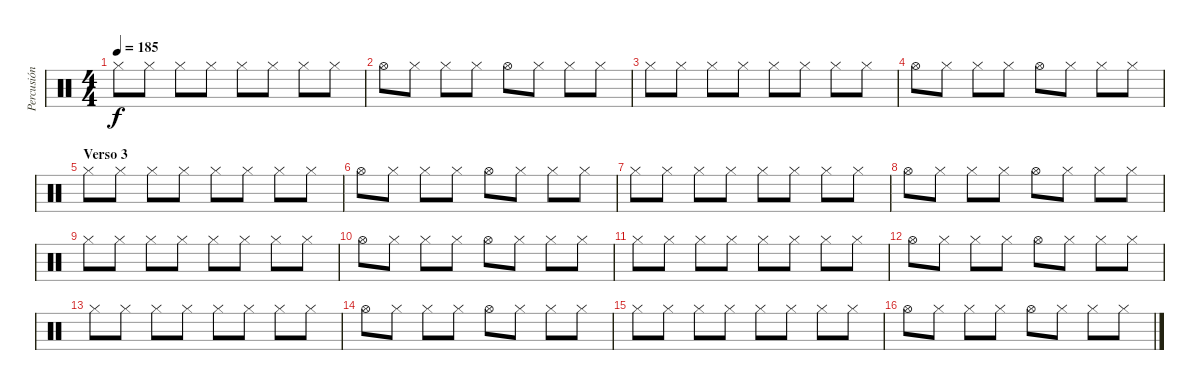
\track ("Percusión" "Percusión") {instrument percussion}
\staff {score}
\articulation defaults
\ts (4 4)
\tempo 185
\clef neutral
\ks c "Hi-Hat (closed)".8{dy f} "Hi-Hat (closed)".8 "Hi-Hat (closed)".8 "Hi-Hat (closed)".8 "Hi-Hat (closed)".8 "Hi-Hat (closed)".8 "Hi-Hat (closed)".8 "Hi-Hat (closed)".8
|
"Hi-Hat (open)".8 "Hi-Hat (closed)".8 "Hi-Hat (closed)".8 "Hi-Hat (closed)".8 "Hi-Hat (open)".8 "Hi-Hat (closed)".8 "Hi-Hat (closed)".8 "Hi-Hat (closed)".8 |
"Hi-Hat (closed)".8 "Hi-Hat (closed)".8 "Hi-Hat (closed)".8 "Hi-Hat (closed)".8 "Hi-Hat (closed)".8 "Hi-Hat (closed)".8 "Hi-Hat (closed)".8 "Hi-Hat (closed)".8 |
"Hi-Hat (open)".8 "Hi-Hat (closed)".8 "Hi-Hat (closed)".8 "Hi-Hat (closed)".8 "Hi-Hat (open)".8 "Hi-Hat (closed)".8 "Hi-Hat (closed)".8 "Hi-Hat (closed)".8 |
\section ("" "Verso 3")
"Hi-Hat (closed)".8 "Hi-Hat (closed)".8 "Hi-Hat (closed)".8 "Hi-Hat (closed)".8 "Hi-Hat (closed)".8 "Hi-Hat (closed)".8 "Hi-Hat (closed)".8 "Hi-Hat (closed)".8 |
"Hi-Hat (open)".8 "Hi-Hat (closed)".8 "Hi-Hat (closed)".8 "Hi-Hat (closed)".8 "Hi-Hat (open)".8 "Hi-Hat (closed)".8 "Hi-Hat (closed)".8 "Hi-Hat (closed)".8 |
"Hi-Hat (closed)".8 "Hi-Hat (closed)".8 "Hi-Hat (closed)".8 "Hi-Hat (closed)".8 "Hi-Hat (closed)".8 "Hi-Hat (closed)".8 "Hi-Hat (closed)".8 "Hi-Hat (closed)".8 |
"Hi-Hat (open)".8 "Hi-Hat (closed)".8 "Hi-Hat (closed)".8 "Hi-Hat (closed)".8 "Hi-Hat (open)".8 "Hi-Hat (closed)".8 "Hi-Hat (closed)".8 "Hi-Hat (closed)".8 |
"Hi-Hat (closed)".8 "Hi-Hat (closed)".8 "Hi-Hat (closed)".8 "Hi-Hat (closed)".8 "Hi-Hat (closed)".8 "Hi-Hat (closed)".8 "Hi-Hat (closed)".8 "Hi-Hat (closed)".8 |
"Hi-Hat (open)".8 "Hi-Hat (closed)".8 "Hi-Hat (closed)".8 "Hi-Hat (closed)".8 "Hi-Hat (open)".8 "Hi-Hat (closed)".8 "Hi-Hat (closed)".8 "Hi-Hat (closed)".8 |
"Hi-Hat (closed)".8 "Hi-Hat (closed)".8 "Hi-Hat (closed)".8 "Hi-Hat (closed)".8 "Hi-Hat (closed)".8 "Hi-Hat (closed)".8 "Hi-Hat (closed)".8 "Hi-Hat (closed)".8 |
"Hi-Hat (open)".8 "Hi-Hat (closed)".8 "Hi-Hat (closed)".8 "Hi-Hat (closed)".8 "Hi-Hat (open)".8 "Hi-Hat (closed)".8 "Hi-Hat (closed)".8 "Hi-Hat (closed)".8 |
"Hi-Hat (closed)".8 "Hi-Hat (closed)".8 "Hi-Hat (closed)".8 "Hi-Hat (closed)".8 "Hi-Hat (closed)".8 "Hi-Hat (closed)".8 "Hi-Hat (closed)".8 "Hi-Hat (closed)".8 |
"Hi-Hat (open)".8 "Hi-Hat (closed)".8 "Hi-Hat (closed)".8 "Hi-Hat (closed)".8 "Hi-Hat (open)".8 "Hi-Hat (closed)".8 "Hi-Hat (closed)".8 "Hi-Hat (closed)".8 |
"Hi-Hat (closed)".8 "Hi-Hat (closed)".8 "Hi-Hat (closed)".8 "Hi-Hat (closed)".8 "Hi-Hat (closed)".8 "Hi-Hat (closed)".8 "Hi-Hat (closed)".8 "Hi-Hat (closed)".8 |
"Hi-Hat (open)".8 "Hi-Hat (closed)".8 "Hi-Hat (closed)".8 "Hi-Hat (closed)".8 "Hi-Hat (open)".8 "Hi-Hat (closed)".8 "Hi-Hat (closed)".8 "Hi-Hat (closed)".8
